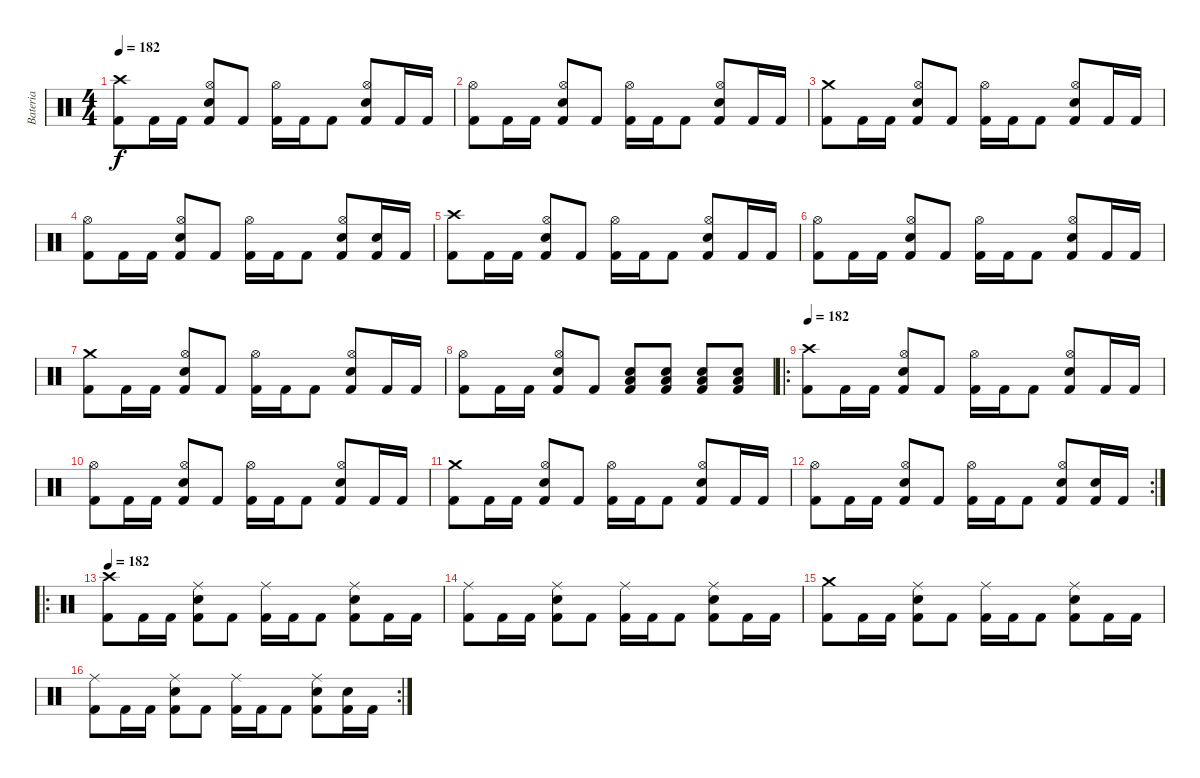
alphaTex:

\track ("Bateria" "Bateria") {instrument percussion}
\staff {score}
\articulation defaults
\ts (4 4)
\tempo 182
\clef neutral
\ks c
("Crash high (hit)" "Kick (hit) 2").8{dy f} "Kick (hit) 2".16 "Kick (hit) 2".16 ("Hi-Hat (open)" "Snare (hit) 2" "Kick (hit) 2").8 "Kick (hit) 2".8 ("Hi-Hat (open)" "Kick (hit) 2").16 "Kick (hit) 2".16 "Kick (hit) 2".8 ("Hi-Hat (open)" "Snare (hit) 2" "Kick (hit) 2").8 "Kick (hit) 2".16 "Kick (hit) 2".16 |
("Hi-Hat (open)" "Kick (hit) 2").8 "Kick (hit) 2".16 "Kick (hit) 2".16 ("Hi-Hat (open)" "Snare (hit) 2" "Kick (hit) 2").8 "Kick (hit) 2".8 ("Hi-Hat (open)" "Kick (hit) 2").16 "Kick (hit) 2".16 "Kick (hit) 2".8 ("Hi-Hat (open)" "Snare (hit) 2" "Kick (hit) 2").8 "Kick (hit) 2".16 "Kick (hit) 2".16 |
("Crash medium (hit)" "Kick (hit) 2").8 "Kick (hit) 2".16 "Kick (hit) 2".16 ("Hi-Hat (open)" "Snare (hit) 2" "Kick (hit) 2").8 "Kick (hit) 2".8 ("Hi-Hat (open)" "Kick (hit) 2").16 "Kick (hit) 2".16 "Kick (hit) 2".8 ("Hi-Hat (open)" "Snare (hit) 2" "Kick (hit) 2").8 "Kick (hit) 2".16 "Kick (hit) 2".16 |
("Hi-Hat (open)" "Kick (hit) 2").8 "Kick (hit) 2".16 "Kick (hit) 2".16 ("Hi-Hat (open)" "Snare (hit) 2" "Kick (hit) 2").8 "Kick (hit) 2".8 ("Hi-Hat (open)" "Kick (hit) 2").16 "Kick (hit) 2".16 "Kick (hit) 2".8 ("Hi-Hat (open)" "Snare (hit) 2" "Kick (hit) 2").8 ("Snare (hit) 2" "Kick (hit) 2").16 "Kick (hit) 2".16 |
("Crash high (hit)" "Kick (hit) 2").8 "Kick (hit) 2".16 "Kick (hit) 2".16 ("Hi-Hat (open)" "Snare (hit) 2" "Kick (hit) 2").8 "Kick (hit) 2".8 ("Hi-Hat (open)" "Kick (hit) 2").16 "Kick (hit) 2".16 "Kick (hit) 2".8 ("Hi-Hat (open)" "Snare (hit) 2" "Kick (hit) 2").8 "Kick (hit) 2".16 "Kick (hit) 2".16 |
("Hi-Hat (open)" "Kick (hit) 2").8 "Kick (hit) 2".16 "Kick (hit) 2".16 ("Hi-Hat (open)" "Snare (hit) 2" "Kick (hit) 2").8 "Kick (hit) 2".8 ("Hi-Hat (open)" "Kick (hit) 2").16 "Kick (hit) 2".16 "Kick (hit) 2".8 ("Hi-Hat (open)" "Snare (hit) 2" "Kick (hit) 2").8 "Kick (hit) 2".16 "Kick (hit) 2".16 |
("Crash medium (hit)" "Kick (hit) 2").8 "Kick (hit) 2".16 "Kick (hit) 2".16 ("Hi-Hat (open)" "Snare (hit) 2" "Kick (hit) 2").8 "Kick (hit) 2".8 ("Hi-Hat (open)" "Kick (hit) 2").16 "Kick (hit) 2".16 "Kick (hit) 2".8 ("Hi-Hat (open)" "Snare (hit) 2" "Kick (hit) 2").8 "Kick (hit) 2".16 "Kick (hit) 2".16 |
("Hi-Hat (open)" "Kick (hit) 2").8 "Kick (hit) 2".16 "Kick (hit) 2".16 ("Hi-Hat (open)" "Snare (hit) 2" "Kick (hit) 2").8 "Kick (hit) 2".8 ("Low Tom (hit)" "Snare (hit) 2" "Kick (hit) 2").8 ("Low Tom (hit)" "Snare (hit) 2" "Kick (hit) 2").8 ("Low Tom (hit)" "Snare (hit) 2" "Kick (hit) 2").8 ("Low Tom (hit)" "Snare (hit) 2" "Kick (hit) 2").8 |
\ro
\tempo 182
("Crash high (hit)" "Kick (hit) 2").8 "Kick (hit) 2".16 "Kick (hit) 2".16 ("Hi-Hat (open)" "Snare (hit) 2" "Kick (hit) 2").8 "Kick (hit) 2".8 ("Hi-Hat (open)" "Kick (hit) 2").16 "Kick (hit) 2".16 "Kick (hit) 2".8 ("Hi-Hat (open)" "Snare (hit) 2" "Kick (hit) 2").8 "Kick (hit) 2".16 "Kick (hit) 2".16 |
("Hi-Hat (open)" "Kick (hit) 2").8 "Kick (hit) 2".16 "Kick (hit) 2".16 ("Hi-Hat (open)" "Snare (hit) 2" "Kick (hit) 2").8 "Kick (hit) 2".8 ("Hi-Hat (open)" "Kick (hit) 2").16 "Kick (hit) 2".16 "Kick (hit) 2".8 ("Hi-Hat (open)" "Snare (hit) 2" "Kick (hit) 2").8 "Kick (hit) 2".16 "Kick (hit) 2".16 |
("Crash medium (hit)" "Kick (hit) 2").8 "Kick (hit) 2".16 "Kick (hit) 2".16 ("Hi-Hat (open)" "Snare (hit) 2" "Kick (hit) 2").8 "Kick (hit) 2".8 ("Hi-Hat (open)" "Kick (hit) 2").16 "Kick (hit) 2".16 "Kick (hit) 2".8 ("Hi-Hat (open)" "Snare (hit) 2" "Kick (hit) 2").8 "Kick (hit) 2".16 "Kick (hit) 2".16 |
\rc 2
("Hi-Hat (open)" "Kick (hit) 2").8 "Kick (hit) 2".16 "Kick (hit) 2".16 ("Hi-Hat (open)" "Snare (hit) 2" "Kick (hit) 2").8 "Kick (hit) 2".8 ("Hi-Hat (open)" "Kick (hit) 2").16 "Kick (hit) 2".16 "Kick (hit) 2".8 ("Hi-Hat (open)" "Snare (hit) 2" "Kick (hit) 2").8 ("Snare (hit) 2" "Kick (hit) 2").16 "Kick (hit) 2".16 |
\ro
\tempo 182
("Crash high (hit)" "Kick (hit) 2").8 "Kick (hit) 2".16 "Kick (hit) 2".16 ("Ride (middle)" "Snare (hit) 2" "Kick (hit) 2").8 "Kick (hit) 2".8 ("Ride (middle)" "Kick (hit) 2").16 "Kick (hit) 2".16 "Kick (hit) 2".8 ("Ride (middle)" "Snare (hit) 2" "Kick (hit) 2").8 "Kick (hit) 2".16 "Kick (hit) 2".16 |
("Ride (middle)" "Kick (hit) 2").8 "Kick (hit) 2".16 "Kick (hit) 2".16 ("Ride (middle)" "Snare (hit) 2" "Kick (hit) 2").8 "Kick (hit) 2".8 ("Ride (middle)" "Kick (hit) 2").16 "Kick (hit) 2".16 "Kick (hit) 2".8 ("Ride (middle)" "Snare (hit) 2" "Kick (hit) 2").8 "Kick (hit) 2".16 "Kick (hit) 2".16 |
("Crash medium (hit)" "Kick (hit) 2").8 "Kick (hit) 2".16 "Kick (hit) 2".16 ("Ride (middle)" "Snare (hit) 2" "Kick (hit) 2").8 "Kick (hit) 2".8 ("Ride (middle)" "Kick (hit) 2").16 "Kick (hit) 2".16 "Kick (hit) 2".8 ("Ride (middle)" "Snare (hit) 2" "Kick (hit) 2").8 "Kick (hit) 2".16 "Kick (hit) 2".16 |
\rc 2
("Ride (middle)" "Kick (hit) 2").8 "Kick (hit) 2".16 "Kick (hit) 2".16 ("Ride (middle)" "Snare (hit) 2" "Kick (hit) 2").8 "Kick (hit) 2".8 ("Ride (middle)" "Kick (hit) 2").16 "Kick (hit) 2".16 "Kick (hit) 2".8 ("Ride (middle)" "Snare (hit) 2" "Kick (hit) 2").8 ("Snare (hit) 2" "Kick (hit) 2").16 "Kick (hit) 2".16
